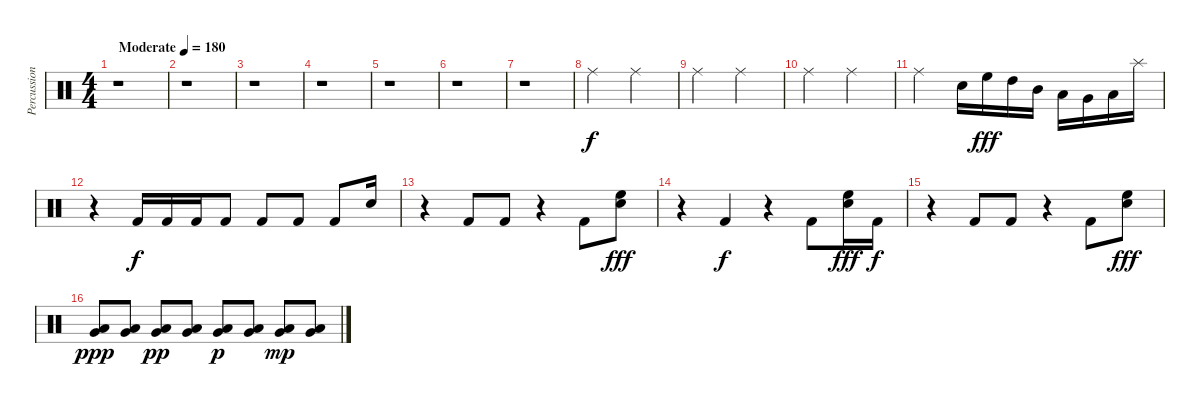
\track ("Percussion" "Percussion") {instrument percussion}
\staff {score}
\articulation defaults
\ts (4 4)
\tempo (180 "Moderate")
\clef neutral
\ks c
r.1{dy f} |
r.1 |
r.1 |
r.1 |
r.1 |
r.1 |
r.1 |
"Ride (middle)".2 "Ride (middle)".2 |
"Ride (middle)".2 "Ride (middle)".2 |
"Ride (middle)".2 "Ride (middle)".2 |
"Ride (middle)".2 "Snare (hit) 2".16 "High Floor Tom (hit)".16{dy fff} "High Tom (hit)".16 "Mid Tom (hit)".16 "Low Tom (hit)".16 "Very Low Tom (hit)".16 "Low Floor Tom (hit)".16 "Splash (hit)".16 |
r.4 "Kick (hit) 2".16{dy f} "Kick (hit) 2".16 "Kick (hit) 2".16 "Kick (hit) 2".8 "Kick (hit) 2".8 "Kick (hit) 2".8 "Kick (hit) 2".8 "Snare (hit) 2".16 |
r.4 "Kick (hit) 2".8 "Kick (hit) 2".8 r.4 "Kick (hit) 2".8 ("High Floor Tom (hit)" "Snare (hit) 2").8{dy fff} |
r.4 "Kick (hit) 2".4{dy f} r.4 "Kick (hit) 2".8 ("High Floor Tom (hit)" "Snare (hit) 2").16{dy fff} "Kick (hit) 2".16{dy f} |
r.4 "Kick (hit) 2".8 "Kick (hit) 2".8 r.4 "Kick (hit) 2".8 ("High Floor Tom (hit)" "Snare (hit) 2").8{dy fff} |
("Very Low Tom (hit)" "Low Floor Tom (hit)").8{dy ppp} ("Very Low Tom (hit)" "Low Floor Tom (hit)").8 ("Very Low Tom (hit)" "Low Floor Tom (hit)").8{dy pp} ("Very Low Tom (hit)" "Low Floor Tom (hit)").8 ("Very Low Tom (hit)" "Low Floor Tom (hit)").8{dy p} ("Very Low Tom (hit)" "Low Floor Tom (hit)").8 ("Very Low Tom (hit)" "Low Floor Tom (hit)").8{dy mp} ("Very Low Tom (hit)" "Low Floor Tom (hit)").8
